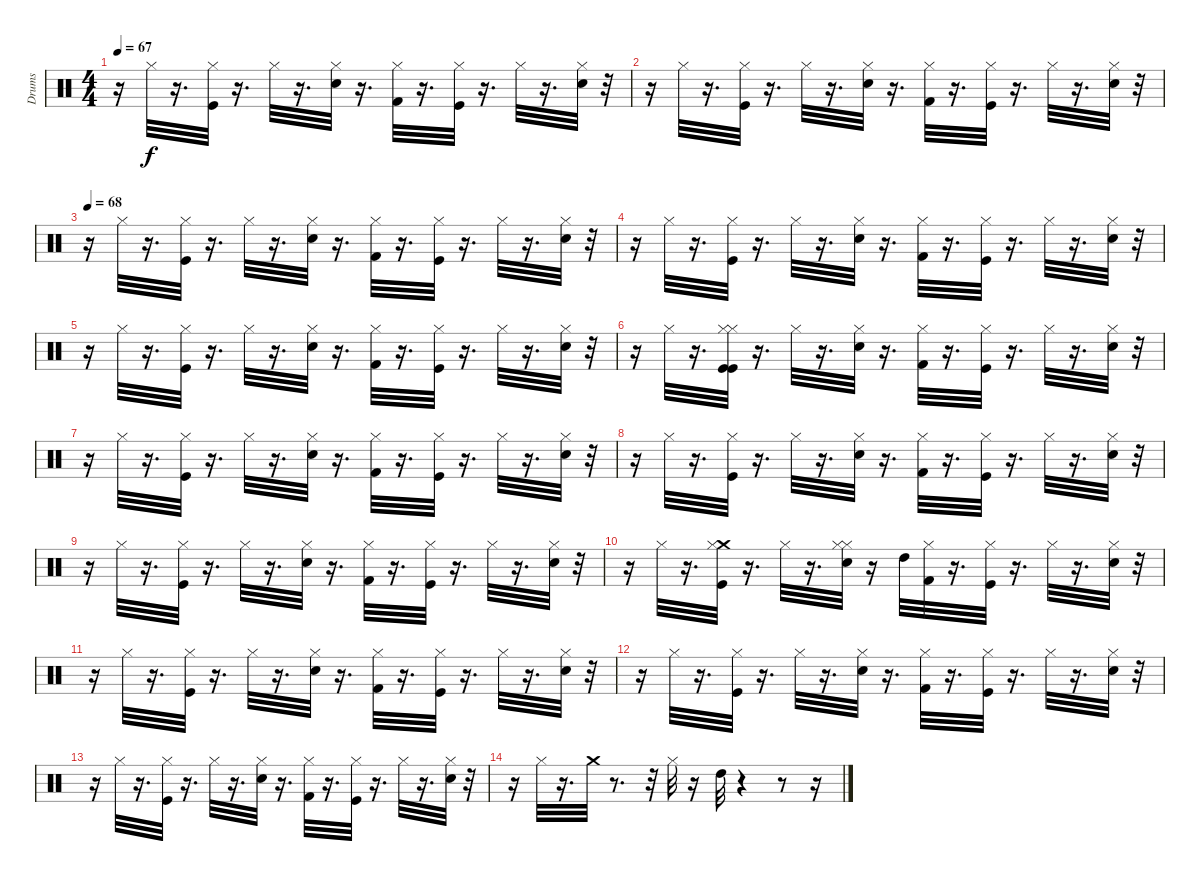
\track ("Drums" "Drums") {instrument percussion}
\staff {score}
\articulation defaults
\ts (4 4)
\tempo 67
\clef neutral
\ks c
r.16{dy f} "Hi-Hat (closed)".32 r.16{d} ("Hi-Hat (closed)" "Kick (hit)").32 r.16{d} "Hi-Hat (closed)".32 r.16{d} ("Hi-Hat (closed)" "Snare (hit) 2").32 r.16{d} ("Hi-Hat (closed)" "Kick (hit) 2").32 r.16{d} ("Hi-Hat (closed)" "Kick (hit)").32 r.16{d} "Hi-Hat (closed)".32 r.16{d} ("Hi-Hat (closed)" "Snare (hit) 2").32 r.32 |
r.16 "Hi-Hat (closed)".32 r.16{d} ("Kick (hit)" "Hi-Hat (closed)").32 r.16{d} "Hi-Hat (closed)".32 r.16{d} ("Snare (hit) 2" "Hi-Hat (closed)").32 r.16{d} ("Kick (hit) 2" "Hi-Hat (closed)").32 r.16{d} ("Kick (hit)" "Hi-Hat (closed)").32 r.16{d} "Hi-Hat (closed)".32 r.16{d} ("Snare (hit) 2" "Hi-Hat (closed)").32 r.32 |
\tempo 68
r.16 "Hi-Hat (closed)".32 r.16{d} ("Kick (hit)" "Hi-Hat (closed)").32 r.16{d} "Hi-Hat (closed)".32 r.16{d} ("Snare (hit) 2" "Hi-Hat (closed)").32 r.16{d} ("Kick (hit) 2" "Hi-Hat (closed)").32 r.16{d} ("Kick (hit)" "Hi-Hat (closed)").32 r.16{d} "Hi-Hat (closed)".32 r.16{d} ("Snare (hit) 2" "Hi-Hat (closed)").32 r.32 |
r.16 "Hi-Hat (closed)".32 r.16{d} ("Hi-Hat (closed)" "Kick (hit)").32 r.16{d} "Hi-Hat (closed)".32 r.16{d} ("Hi-Hat (closed)" "Snare (hit) 2").32 r.16{d} ("Hi-Hat (closed)" "Kick (hit) 2").32 r.16{d} ("Hi-Hat (closed)" "Kick (hit)").32 r.16{d} "Hi-Hat (closed)".32 r.16{d} ("Hi-Hat (closed)" "Snare (hit) 2").32 r.32 |
r.16 "Hi-Hat (closed)".32 r.16{d} ("Hi-Hat (closed)" "Kick (hit)").32 r.16{d} "Hi-Hat (closed)".32 r.16{d} ("Hi-Hat (closed)" "Snare (hit) 2").32 r.16{d} ("Hi-Hat (closed)" "Kick (hit) 2").32 r.16{d} ("Hi-Hat (closed)" "Kick (hit)").32 r.16{d} "Hi-Hat (closed)".32 r.16{d} ("Hi-Hat (closed)" "Snare (hit) 2").32 r.32 |
r.16 "Hi-Hat (closed)".32 r.16{d} ("Hi-Hat (closed)" "Kick (hit)" "Kick (hit)" "Hi-Hat (closed)").32 r.16{d} "Hi-Hat (closed)".32 r.16{d} ("Snare (hit) 2" "Hi-Hat (closed)").32 r.16{d} ("Kick (hit) 2" "Hi-Hat (closed)").32 r.16{d} ("Kick (hit)" "Hi-Hat (closed)").32 r.16{d} "Hi-Hat (closed)".32 r.16{d} ("Snare (hit) 2" "Hi-Hat (closed)").32 r.32 |
r.16 "Hi-Hat (closed)".32 r.16{d} ("Kick (hit)" "Hi-Hat (closed)").32 r.16{d} "Hi-Hat (closed)".32 r.16{d} ("Snare (hit) 2" "Hi-Hat (closed)").32 r.16{d} ("Kick (hit) 2" "Hi-Hat (closed)").32 r.16{d} ("Kick (hit)" "Hi-Hat (closed)").32 r.16{d} "Hi-Hat (closed)".32 r.16{d} ("Snare (hit) 2" "Hi-Hat (closed)").32 r.32 |
r.16 "Hi-Hat (closed)".32 r.16{d} ("Hi-Hat (closed)" "Kick (hit)").32 r.16{d} "Hi-Hat (closed)".32 r.16{d} ("Hi-Hat (closed)" "Snare (hit) 2").32 r.16{d} ("Hi-Hat (closed)" "Kick (hit) 2").32 r.16{d} ("Hi-Hat (closed)" "Kick (hit)").32 r.16{d} "Hi-Hat (closed)".32 r.16{d} ("Hi-Hat (closed)" "Snare (hit) 2").32 r.32 |
r.16 "Hi-Hat (closed)".32 r.16{d} ("Hi-Hat (closed)" "Kick (hit)").32 r.16{d} "Hi-Hat (closed)".32 r.16{d} ("Hi-Hat (closed)" "Snare (hit) 2").32 r.16{d} ("Hi-Hat (closed)" "Kick (hit) 2").32 r.16{d} ("Hi-Hat (closed)" "Kick (hit)").32 r.16{d} "Hi-Hat (closed)".32 r.16{d} ("Hi-Hat (closed)" "Snare (hit) 2").32 r.32 |
r.16 "Hi-Hat (closed)".32 r.16{d} ("Crash medium (hit)" "Kick (hit)" "Hi-Hat (closed)").32 r.16{d} "Hi-Hat (closed)".32 r.16{d} ("Hi-Hat (closed)" "Snare (hit) 2" "Hi-Hat (closed)").32 r.16 "High Tom (hit)".32 ("Kick (hit) 2" "Hi-Hat (closed)").32 r.16{d} ("Kick (hit)" "Hi-Hat (closed)").32 r.16{d} "Hi-Hat (closed)".32 r.16{d} ("Snare (hit) 2" "Hi-Hat (closed)").32 r.32 |
r.16 "Hi-Hat (closed)".32 r.16{d} ("Kick (hit)" "Hi-Hat (closed)").32 r.16{d} "Hi-Hat (closed)".32 r.16{d} ("Snare (hit) 2" "Hi-Hat (closed)").32 r.16{d} ("Kick (hit) 2" "Hi-Hat (closed)").32 r.16{d} ("Kick (hit)" "Hi-Hat (closed)").32 r.16{d} "Hi-Hat (closed)".32 r.16{d} ("Snare (hit) 2" "Hi-Hat (closed)").32 r.32 |
r.16 "Hi-Hat (closed)".32 r.16{d} ("Hi-Hat (closed)" "Kick (hit)").32 r.16{d} "Hi-Hat (closed)".32 r.16{d} ("Hi-Hat (closed)" "Snare (hit) 2").32 r.16{d} ("Hi-Hat (closed)" "Kick (hit) 2").32 r.16{d} ("Hi-Hat (closed)" "Kick (hit)").32 r.16{d} "Hi-Hat (closed)".32 r.16{d} ("Hi-Hat (closed)" "Snare (hit) 2").32 r.32 |
r.16 "Hi-Hat (closed)".32 r.16{d} ("Hi-Hat (closed)" "Kick (hit)").32 r.16{d} "Hi-Hat (closed)".32 r.16{d} ("Hi-Hat (closed)" "Snare (hit) 2").32 r.16{d} ("Hi-Hat (closed)" "Kick (hit) 2").32 r.16{d} ("Hi-Hat (closed)" "Kick (hit)").32 r.16{d} "Hi-Hat (closed)".32 r.16{d} ("Hi-Hat (closed)" "Snare (hit) 2").32 r.32 |
r.16 "Hi-Hat (closed)".32 r.16{d} "Crash medium (hit)".32 r.8{d} r.32 "Hi-Hat (closed)".32 r.16 "High Tom (hit)".32 r.4 r.8 r.16
